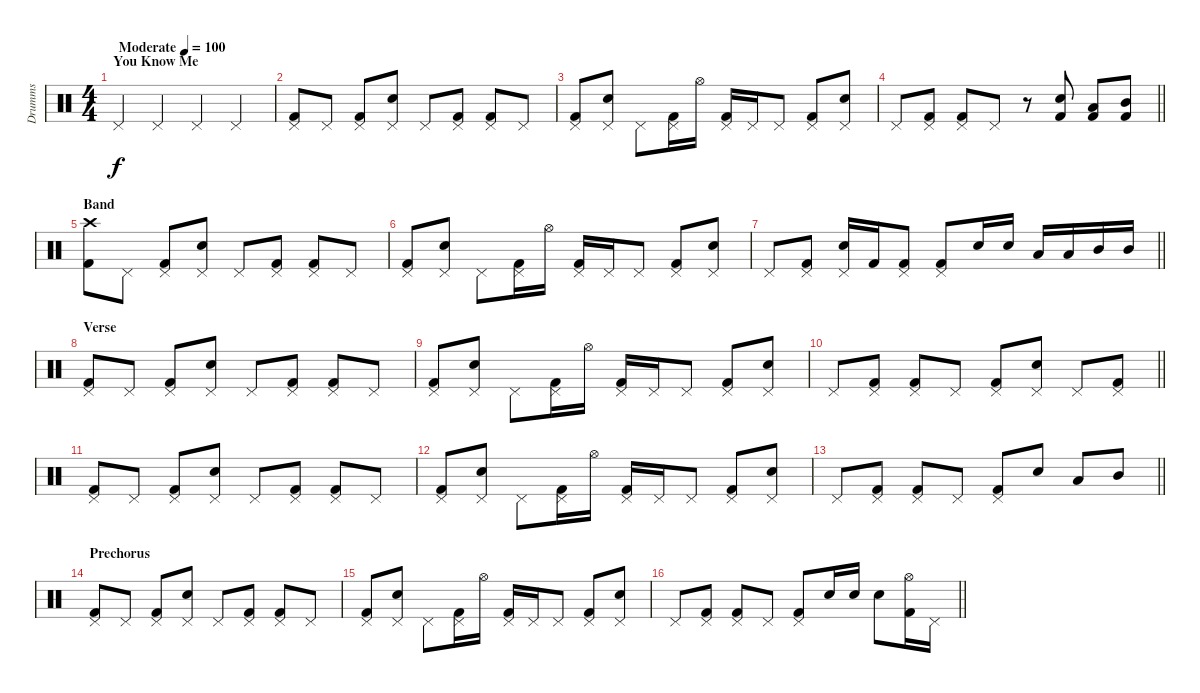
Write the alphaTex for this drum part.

\track ("Drumms" "Drumms") {instrument percussion}
\staff {score}
\articulation defaults
\ts (4 4)
\section ("" "You Know Me ")
\tempo (100 "Moderate")
\clef neutral
\ks c "Pedal Hi-Hat (hit)".4{dy f} "Pedal Hi-Hat (hit)".4 "Pedal Hi-Hat (hit)".4 "Pedal Hi-Hat (hit)".4
|
("Pedal Hi-Hat (hit)" "Kick (hit) 2").8 "Pedal Hi-Hat (hit)".8 ("Pedal Hi-Hat (hit)" "Kick (hit) 2").8 ("Pedal Hi-Hat (hit)" "Electric Snare (hit)").8 "Pedal Hi-Hat (hit)".8 ("Pedal Hi-Hat (hit)" "Kick (hit) 2").8 ("Pedal Hi-Hat (hit)" "Kick (hit) 2").8 "Pedal Hi-Hat (hit)".8 |
("Pedal Hi-Hat (hit)" "Kick (hit) 2").8 ("Pedal Hi-Hat (hit)" "Electric Snare (hit)").8 "Pedal Hi-Hat (hit)".8 ("Pedal Hi-Hat (hit)" "Kick (hit) 2").16 "Hi-Hat (open)".16 ("Pedal Hi-Hat (hit)" "Kick (hit) 2").16 "Pedal Hi-Hat (hit)".16 "Pedal Hi-Hat (hit)".8 ("Pedal Hi-Hat (hit)" "Kick (hit) 2").8 ("Pedal Hi-Hat (hit)" "Electric Snare (hit)").8 |
\barLineRight lightlight "Pedal Hi-Hat (hit)".8
("Pedal Hi-Hat (hit)" "Kick (hit) 2").8 ("Pedal Hi-Hat (hit)" "Kick (hit) 2").8 "Pedal Hi-Hat (hit)".8 r.8 ("Snare (hit) 2" "Kick (hit) 2").8{volume 13} ("Low Tom (hit)" "Kick (hit) 2").8 ("Mid Tom (hit)" "Kick (hit) 2").8 |
\section ("" "Band")
("Crash high (hit)" "Kick (hit) 2").8 "Pedal Hi-Hat (hit)".8 ("Pedal Hi-Hat (hit)" "Kick (hit) 2").8 ("Pedal Hi-Hat (hit)" "Snare (hit) 2").8 "Pedal Hi-Hat (hit)".8 ("Pedal Hi-Hat (hit)" "Kick (hit) 2").8 ("Pedal Hi-Hat (hit)" "Kick (hit) 2").8 "Pedal Hi-Hat (hit)".8 |
("Pedal Hi-Hat (hit)" "Kick (hit) 2").8 ("Pedal Hi-Hat (hit)" "Snare (hit) 2").8 "Pedal Hi-Hat (hit)".8 ("Pedal Hi-Hat (hit)" "Kick (hit) 2").16 "Hi-Hat (open)".16 ("Pedal Hi-Hat (hit)" "Kick (hit) 2").16 "Pedal Hi-Hat (hit)".16 "Pedal Hi-Hat (hit)".8 ("Pedal Hi-Hat (hit)" "Kick (hit) 2").8 ("Pedal Hi-Hat (hit)" "Snare (hit) 2").8 |
\barLineRight lightlight "Pedal Hi-Hat (hit)".8
("Pedal Hi-Hat (hit)" "Kick (hit) 2").8 ("Pedal Hi-Hat (hit)" "Snare (hit) 2").16 "Kick (hit) 2".16 ("Pedal Hi-Hat (hit)" "Kick (hit) 2").8 ("Pedal Hi-Hat (hit)" "Kick (hit) 2").8 "Snare (hit) 2".16 "Snare (hit) 2".16 "Low Tom (hit)".16 "Low Tom (hit)".16 "Mid Tom (hit)".16 "Mid Tom (hit)".16 |
\section ("" "Verse")
("Pedal Hi-Hat (hit)" "Kick (hit) 2").8 "Pedal Hi-Hat (hit)".8 ("Pedal Hi-Hat (hit)" "Kick (hit) 2").8 ("Pedal Hi-Hat (hit)" "Snare (hit) 2").8 "Pedal Hi-Hat (hit)".8 ("Pedal Hi-Hat (hit)" "Kick (hit) 2").8 ("Pedal Hi-Hat (hit)" "Kick (hit) 2").8 "Pedal Hi-Hat (hit)".8 |
("Pedal Hi-Hat (hit)" "Kick (hit) 2").8 ("Pedal Hi-Hat (hit)" "Snare (hit) 2").8 "Pedal Hi-Hat (hit)".8 ("Pedal Hi-Hat (hit)" "Kick (hit) 2").16 "Hi-Hat (open)".16 ("Pedal Hi-Hat (hit)" "Kick (hit) 2").16 "Pedal Hi-Hat (hit)".16 "Pedal Hi-Hat (hit)".8 ("Pedal Hi-Hat (hit)" "Kick (hit) 2").8 ("Pedal Hi-Hat (hit)" "Snare (hit) 2").8 |
\barLineRight lightlight "Pedal Hi-Hat (hit)".8
("Pedal Hi-Hat (hit)" "Kick (hit) 2").8 ("Pedal Hi-Hat (hit)" "Kick (hit) 2").8 "Pedal Hi-Hat (hit)".8 ("Pedal Hi-Hat (hit)" "Kick (hit) 2").8 ("Pedal Hi-Hat (hit)" "Snare (hit) 2").8 "Pedal Hi-Hat (hit)".8 ("Pedal Hi-Hat (hit)" "Kick (hit) 2").8 |
("Pedal Hi-Hat (hit)" "Kick (hit) 2").8 "Pedal Hi-Hat (hit)".8 ("Pedal Hi-Hat (hit)" "Kick (hit) 2").8 ("Pedal Hi-Hat (hit)" "Snare (hit) 2").8 "Pedal Hi-Hat (hit)".8 ("Pedal Hi-Hat (hit)" "Kick (hit) 2").8 ("Pedal Hi-Hat (hit)" "Kick (hit) 2").8 "Pedal Hi-Hat (hit)".8 |
("Pedal Hi-Hat (hit)" "Kick (hit) 2").8 ("Pedal Hi-Hat (hit)" "Snare (hit) 2").8 "Pedal Hi-Hat (hit)".8 ("Pedal Hi-Hat (hit)" "Kick (hit) 2").16 "Hi-Hat (open)".16 ("Pedal Hi-Hat (hit)" "Kick (hit) 2").16 "Pedal Hi-Hat (hit)".16 "Pedal Hi-Hat (hit)".8 ("Pedal Hi-Hat (hit)" "Kick (hit) 2").8 ("Pedal Hi-Hat (hit)" "Snare (hit) 2").8 |
\barLineRight lightlight "Pedal Hi-Hat (hit)".8
("Pedal Hi-Hat (hit)" "Kick (hit) 2").8 ("Pedal Hi-Hat (hit)" "Kick (hit) 2").8 "Pedal Hi-Hat (hit)".8 ("Pedal Hi-Hat (hit)" "Kick (hit) 2").8 "Snare (hit) 2".8 "Low Tom (hit)".8 "Mid Tom (hit)".8 |
\section ("" "Prechorus")
("Pedal Hi-Hat (hit)" "Kick (hit) 2").8 "Pedal Hi-Hat (hit)".8 ("Pedal Hi-Hat (hit)" "Kick (hit) 2").8 ("Pedal Hi-Hat (hit)" "Snare (hit) 2").8 "Pedal Hi-Hat (hit)".8 ("Pedal Hi-Hat (hit)" "Kick (hit) 2").8 ("Pedal Hi-Hat (hit)" "Kick (hit) 2").8 "Pedal Hi-Hat (hit)".8 |
("Pedal Hi-Hat (hit)" "Kick (hit) 2").8 ("Pedal Hi-Hat (hit)" "Snare (hit) 2").8 "Pedal Hi-Hat (hit)".8 ("Pedal Hi-Hat (hit)" "Kick (hit) 2").16 "Hi-Hat (open)".16 ("Pedal Hi-Hat (hit)" "Kick (hit) 2").16 "Pedal Hi-Hat (hit)".16 "Pedal Hi-Hat (hit)".8 ("Pedal Hi-Hat (hit)" "Kick (hit) 2").8 ("Pedal Hi-Hat (hit)" "Snare (hit) 2").8 |
\barLineRight lightlight "Pedal Hi-Hat (hit)".8
("Pedal Hi-Hat (hit)" "Kick (hit) 2").8 ("Pedal Hi-Hat (hit)" "Kick (hit) 2").8 "Pedal Hi-Hat (hit)".8 ("Pedal Hi-Hat (hit)" "Kick (hit) 2").8 "Snare (hit) 2".16 "Snare (hit) 2".16 "Snare (hit) 2".8 ("Hi-Hat (open)" "Kick (hit) 2").16 "Pedal Hi-Hat (hit)".16
